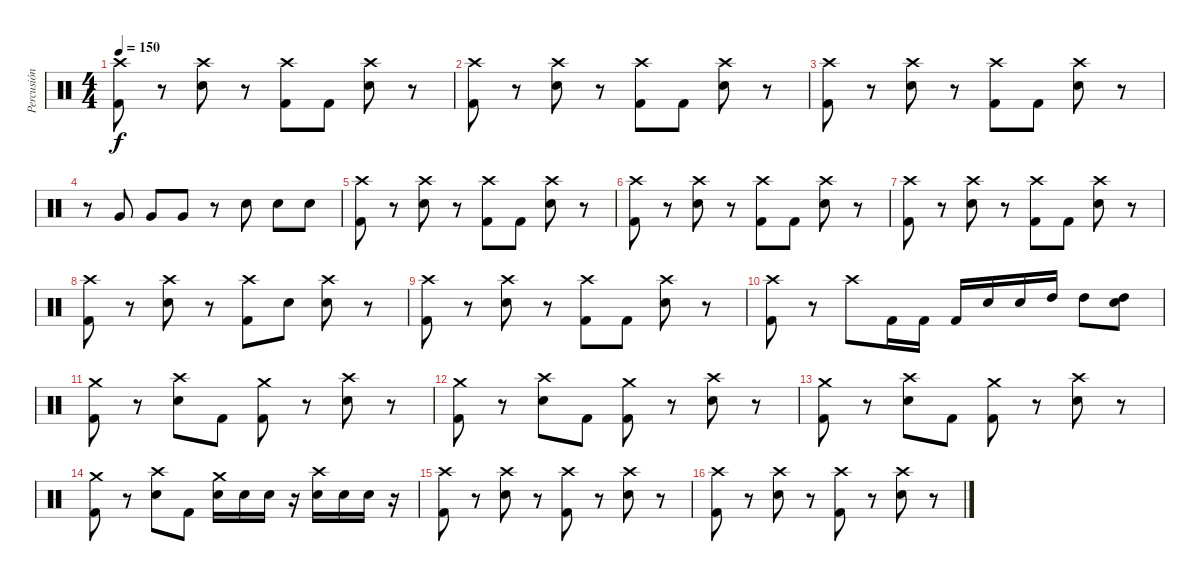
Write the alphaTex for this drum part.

\track ("Percusión" "Percusión") {instrument percussion}
\staff {score}
\articulation defaults
\ts (4 4)
\tempo 150
\clef neutral
\ks c
("Crash high (hit)" "Kick (hit) 2").8{dy f} r.8 ("Crash high (hit)" "Snare (hit) 2").8 r.8 ("Crash high (hit)" "Kick (hit) 2").8 "Kick (hit) 2".8 ("Crash high (hit)" "Snare (hit) 2").8 r.8 |
("Crash high (hit)" "Kick (hit) 2").8 r.8 ("Crash high (hit)" "Snare (hit) 2").8 r.8 ("Crash high (hit)" "Kick (hit) 2").8 "Kick (hit) 2".8 ("Crash high (hit)" "Snare (hit) 2").8 r.8 |
("Crash high (hit)" "Kick (hit) 2").8 r.8 ("Crash high (hit)" "Snare (hit) 2").8 r.8 ("Crash high (hit)" "Kick (hit) 2").8 "Kick (hit) 2".8 ("Crash high (hit)" "Snare (hit) 2").8 r.8 |
r.8 "Very Low Tom (hit)".8 "Very Low Tom (hit)".8 "Very Low Tom (hit)".8 r.8 "Snare (hit) 2".8 "Snare (hit) 2".8 "Snare (hit) 2".8 |
("Crash high (hit)" "Kick (hit) 2").8 r.8 ("Crash high (hit)" "Snare (hit) 2").8 r.8 ("Crash high (hit)" "Kick (hit) 2").8 "Kick (hit) 2".8 ("Crash high (hit)" "Snare (hit) 2").8 r.8 |
("Crash high (hit)" "Kick (hit) 2").8 r.8 ("Crash high (hit)" "Snare (hit) 2").8 r.8 ("Crash high (hit)" "Kick (hit) 2").8 "Kick (hit) 2".8 ("Crash high (hit)" "Snare (hit) 2").8 r.8 |
("Crash high (hit)" "Kick (hit) 2").8 r.8 ("Crash high (hit)" "Snare (hit) 2").8 r.8 ("Crash high (hit)" "Kick (hit) 2").8 "Kick (hit) 2".8 ("Crash high (hit)" "Snare (hit) 2").8 r.8 |
("Crash high (hit)" "Kick (hit) 2").8 r.8 ("Crash high (hit)" "Snare (hit) 2").8 r.8 ("Crash high (hit)" "Kick (hit) 2").8 "Snare (hit) 2".8 ("Crash high (hit)" "Snare (hit) 2").8 r.8 |
("Crash high (hit)" "Kick (hit) 2").8 r.8 ("Crash high (hit)" "Snare (hit) 2").8 r.8 ("Crash high (hit)" "Kick (hit) 2").8 "Kick (hit) 2".8 ("Crash high (hit)" "Snare (hit) 2").8 r.8 |
("Crash high (hit)" "Kick (hit) 2").8 r.8 "Crash high (hit)".8 "Kick (hit) 2".16 "Kick (hit) 2".16 "Kick (hit) 2".16 "Snare (hit) 2".16 "Snare (hit) 2".16 "High Tom (hit)".16 "High Tom (hit)".8 ("High Tom (hit)" "Snare (hit) 2").8 |
("Crash medium (hit)" "Kick (hit) 2").8 r.8 ("Crash high (hit)" "Snare (hit) 2").8 "Kick (hit) 2".8 ("Crash medium (hit)" "Kick (hit) 2").8 r.8 ("Crash high (hit)" "Snare (hit) 2").8 r.8 |
("Crash medium (hit)" "Kick (hit) 2").8 r.8 ("Crash high (hit)" "Snare (hit) 2").8 "Kick (hit) 2".8 ("Crash medium (hit)" "Kick (hit) 2").8 r.8 ("Crash high (hit)" "Snare (hit) 2").8 r.8 |
("Crash medium (hit)" "Kick (hit) 2").8 r.8 ("Crash high (hit)" "Snare (hit) 2").8 "Kick (hit) 2".8 ("Crash medium (hit)" "Kick (hit) 2").8 r.8 ("Crash high (hit)" "Snare (hit) 2").8 r.8 |
("Crash medium (hit)" "Kick (hit) 2").8 r.8 ("Crash high (hit)" "Snare (hit) 2").8 "Kick (hit) 2".8 ("Crash medium (hit)" "Snare (hit) 2").16 "Snare (hit) 2".16 "Snare (hit) 2".16 r.16 ("Crash high (hit)" "Snare (hit) 2").16 "Snare (hit) 2".16 "Snare (hit) 2".16 r.16 |
("Crash high (hit)" "Kick (hit) 2").8 r.8 ("Crash high (hit)" "Snare (hit) 2").8 r.8 ("Crash high (hit)" "Kick (hit) 2").8 r.8 ("Crash high (hit)" "Snare (hit) 2").8 r.8 |
("Crash high (hit)" "Kick (hit) 2").8 r.8 ("Crash high (hit)" "Snare (hit) 2").8 r.8 ("Crash high (hit)" "Kick (hit) 2").8 r.8 ("Crash high (hit)" "Snare (hit) 2").8 r.8
